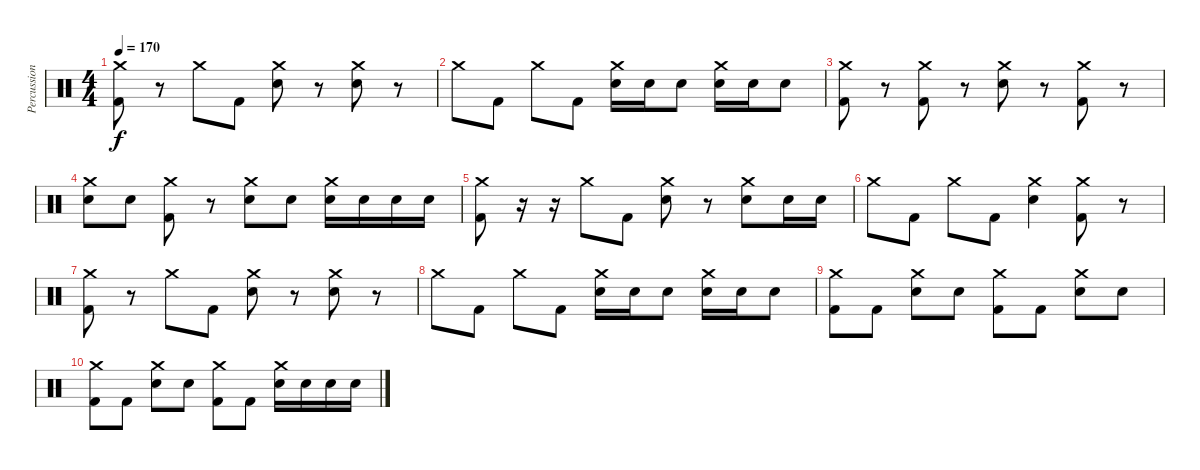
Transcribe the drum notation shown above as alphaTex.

\track ("Percussion" "Percussion") {instrument percussion}
\staff {score}
\articulation defaults
\ts (4 4)
\tempo 170
\clef neutral
\ks c
("Crash medium (hit)" "Kick (hit) 2").8{dy f} r.8 "Crash medium (hit)".8 "Kick (hit) 2".8 ("Crash medium (hit)" "Electric Snare (hit)").8 r.8 ("Crash medium (hit)" "Electric Snare (hit)").8 r.8 |
"Crash medium (hit)".8 "Kick (hit) 2".8 "Crash medium (hit)".8 "Kick (hit) 2".8 ("Crash medium (hit)" "Electric Snare (hit)").16 "Electric Snare (hit)".16 "Electric Snare (hit)".8 ("Crash medium (hit)" "Electric Snare (hit)").16 "Electric Snare (hit)".16 "Electric Snare (hit)".8 |
("Crash medium (hit)" "Kick (hit) 2").8 r.8 ("Crash medium (hit)" "Kick (hit) 2").8 r.8 ("Crash medium (hit)" "Electric Snare (hit)").8 r.8 ("Crash medium (hit)" "Kick (hit) 2").8 r.8 |
("Crash medium (hit)" "Electric Snare (hit)").8 "Electric Snare (hit)".8 ("Crash medium (hit)" "Kick (hit) 2").8 r.8 ("Crash medium (hit)" "Electric Snare (hit)").8 "Electric Snare (hit)".8 ("Crash medium (hit)" "Electric Snare (hit)").16 "Electric Snare (hit)".16 "Electric Snare (hit)".16 "Electric Snare (hit)".16 |
("Crash medium (hit)" "Kick (hit) 2").8 r.16 r.16 "Crash medium (hit)".8 "Kick (hit) 2".8 ("Crash medium (hit)" "Electric Snare (hit)").8 r.8 ("Crash medium (hit)" "Electric Snare (hit)").8 "Electric Snare (hit)".16 "Electric Snare (hit)".16 |
"Crash medium (hit)".8 "Kick (hit) 2".8 "Crash medium (hit)".8 "Kick (hit) 2".8 ("Crash medium (hit)" "Electric Snare (hit)").4 ("Crash medium (hit)" "Kick (hit) 2").8 r.8 |
("Crash medium (hit)" "Kick (hit) 2").8 r.8 "Crash medium (hit)".8 "Kick (hit) 2".8 ("Crash medium (hit)" "Electric Snare (hit)").8 r.8 ("Crash medium (hit)" "Electric Snare (hit)").8 r.8 |
"Crash medium (hit)".8 "Kick (hit) 2".8 "Crash medium (hit)".8 "Kick (hit) 2".8 ("Crash medium (hit)" "Electric Snare (hit)").16 "Electric Snare (hit)".16 "Electric Snare (hit)".8 ("Crash medium (hit)" "Electric Snare (hit)").16 "Electric Snare (hit)".16 "Electric Snare (hit)".8 |
("Crash medium (hit)" "Kick (hit) 2").8 "Kick (hit) 2".8 ("Crash medium (hit)" "Electric Snare (hit)").8 "Electric Snare (hit)".8 ("Crash medium (hit)" "Kick (hit) 2").8 "Kick (hit) 2".8 ("Crash medium (hit)" "Electric Snare (hit)").8 "Electric Snare (hit)".8 |
("Crash medium (hit)" "Kick (hit) 2").8 "Kick (hit) 2".8 ("Crash medium (hit)" "Electric Snare (hit)").8 "Electric Snare (hit)".8 ("Crash medium (hit)" "Kick (hit) 2").8 "Kick (hit) 2".8 ("Crash medium (hit)" "Electric Snare (hit)").16 "Electric Snare (hit)".16 "Electric Snare (hit)".16 "Electric Snare (hit)".16
